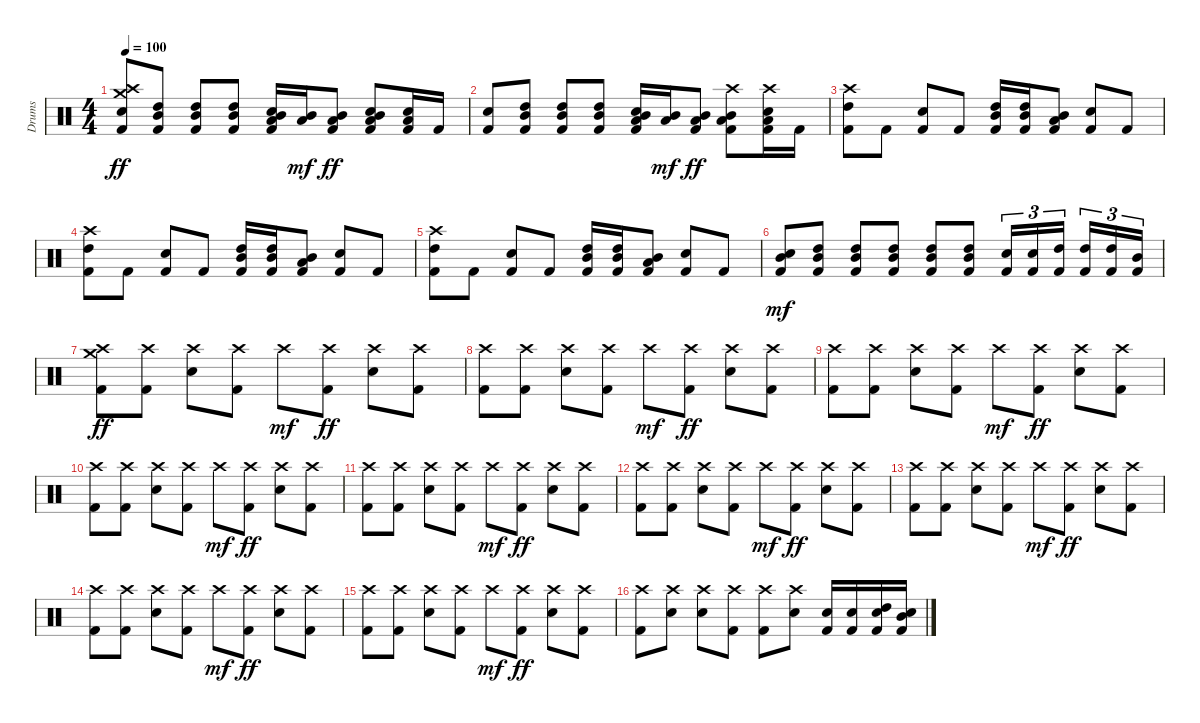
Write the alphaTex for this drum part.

\track ("Drums" "Drums") {instrument percussion}
\staff {score}
\articulation defaults
\ts (4 4)
\tempo 100
\clef neutral
\ks c
("Electric Snare (hit)" "Crash medium (hit)" "Crash high (hit)" "Kick (hit) 2").8{dy ff} ("High Tom (hit)" "Mid Tom (hit)" "Kick (hit) 2").8 ("High Tom (hit)" "Mid Tom (hit)" "Kick (hit) 2").8 ("High Tom (hit)" "Mid Tom (hit)" "Kick (hit) 2").8 ("Mid Tom (hit)" "Low Tom (hit)" "Electric Snare (hit)" "Kick (hit) 2").16 ("Mid Tom (hit)" "Low Tom (hit)").16{dy mf} ("Mid Tom (hit)" "Low Tom (hit)" "Kick (hit) 2").8{dy ff} ("Mid Tom (hit)" "Low Tom (hit)" "Electric Snare (hit)" "Kick (hit) 2").8 ("Low Tom (hit)" "Metronome (bell)" "Kick (hit) 2").16 "Kick (hit) 2".16 |
("Electric Snare (hit)" "Kick (hit) 2").8 ("High Tom (hit)" "Mid Tom (hit)" "Kick (hit) 2").8 ("High Tom (hit)" "Mid Tom (hit)" "Kick (hit) 2").8 ("High Tom (hit)" "Mid Tom (hit)" "Kick (hit) 2").8 ("Mid Tom (hit)" "Low Tom (hit)" "Electric Snare (hit)" "Kick (hit) 2").16 ("Mid Tom (hit)" "Low Tom (hit)").16{dy mf} ("Mid Tom (hit)" "Low Tom (hit)" "Kick (hit) 2").8{dy ff} ("Mid Tom (hit)" "Low Tom (hit)" "Crash high (hit)" "Kick (hit) 2").8 ("Low Tom (hit)" "Metronome (bell)" "Crash high (hit)" "Kick (hit) 2").16 "Kick (hit) 2".16 |
("Crash high (hit)" "High Tom (hit)" "Kick (hit) 2").8 "Kick (hit) 2".8 ("Electric Snare (hit)" "Kick (hit) 2").8 "Kick (hit) 2".8 ("Mid Tom (hit)" "High Tom (hit)" "Kick (hit) 2").16 ("Mid Tom (hit)" "High Tom (hit)" "Kick (hit) 2").16 ("Low Tom (hit)" "Mid Tom (hit)" "Kick (hit) 2").8 ("Electric Snare (hit)" "Kick (hit) 2").8 "Kick (hit) 2".8 |
("Crash high (hit)" "High Tom (hit)" "Kick (hit) 2").8 "Kick (hit) 2".8 ("Electric Snare (hit)" "Kick (hit) 2").8 "Kick (hit) 2".8 ("Mid Tom (hit)" "High Tom (hit)" "Kick (hit) 2").16 ("Mid Tom (hit)" "High Tom (hit)" "Kick (hit) 2").16 ("Low Tom (hit)" "Mid Tom (hit)" "Kick (hit) 2").8 ("Electric Snare (hit)" "Kick (hit) 2").8 "Kick (hit) 2".8 |
("Crash high (hit)" "High Tom (hit)" "Kick (hit) 2").8 "Kick (hit) 2".8 ("Electric Snare (hit)" "Kick (hit) 2").8 "Kick (hit) 2".8 ("Mid Tom (hit)" "High Tom (hit)" "Kick (hit) 2").16 ("Mid Tom (hit)" "High Tom (hit)" "Kick (hit) 2").16 ("Low Tom (hit)" "Mid Tom (hit)" "Kick (hit) 2").8 ("Electric Snare (hit)" "Kick (hit) 2").8 "Kick (hit) 2".8 |
("Electric Snare (hit)" "Mid Tom (hit)" "Kick (hit) 2").8{dy mf} ("High Tom (hit)" "Mid Tom (hit)" "Kick (hit) 2").8 ("High Tom (hit)" "Mid Tom (hit)" "Kick (hit) 2").8 ("High Tom (hit)" "Mid Tom (hit)" "Kick (hit) 2").8 ("High Tom (hit)" "Mid Tom (hit)" "Kick (hit) 2").8 ("High Tom (hit)" "Mid Tom (hit)" "Kick (hit) 2").8 ("Electric Snare (hit)" "Kick (hit) 2").16{tu (3 2)} ("Electric Snare (hit)" "Kick (hit) 2").16{tu (3 2)} ("High Tom (hit)" "Kick (hit) 2").16{tu (3 2)} ("High Tom (hit)" "Kick (hit) 2").16{tu (3 2)} ("High Tom (hit)" "Kick (hit) 2").16{tu (3 2)} ("Mid Tom (hit)" "Kick (hit) 2").16{tu (3 2)} |
("Crash high (hit)" "Crash medium (hit)" "Kick (hit) 2").8{dy ff} ("Crash high (hit)" "Kick (hit) 2").8 ("Crash high (hit)" "Electric Snare (hit)").8 ("Crash high (hit)" "Kick (hit) 2").8 "Crash high (hit)".8{dy mf} ("Crash high (hit)" "Kick (hit) 2").8{dy ff} ("Crash high (hit)" "Electric Snare (hit)").8 ("Crash high (hit)" "Kick (hit) 2").8 |
("Crash high (hit)" "Kick (hit) 2").8 ("Crash high (hit)" "Kick (hit) 2").8 ("Crash high (hit)" "Electric Snare (hit)").8 ("Crash high (hit)" "Kick (hit) 2").8 "Crash high (hit)".8{dy mf} ("Crash high (hit)" "Kick (hit) 2").8{dy ff} ("Crash high (hit)" "Electric Snare (hit)").8 ("Crash high (hit)" "Kick (hit) 2").8 |
("Crash high (hit)" "Kick (hit) 2").8 ("Crash high (hit)" "Kick (hit) 2").8 ("Crash high (hit)" "Electric Snare (hit)").8 ("Crash high (hit)" "Kick (hit) 2").8 "Crash high (hit)".8{dy mf} ("Crash high (hit)" "Kick (hit) 2").8{dy ff} ("Crash high (hit)" "Electric Snare (hit)").8 ("Crash high (hit)" "Kick (hit) 2").8 |
("Crash high (hit)" "Kick (hit) 2").8 ("Crash high (hit)" "Kick (hit) 2").8 ("Crash high (hit)" "Electric Snare (hit)").8 ("Crash high (hit)" "Kick (hit) 2").8 "Crash high (hit)".8{dy mf} ("Crash high (hit)" "Kick (hit) 2").8{dy ff} ("Crash high (hit)" "Electric Snare (hit)").8 ("Crash high (hit)" "Kick (hit) 2").8 |
("Crash high (hit)" "Kick (hit) 2").8 ("Crash high (hit)" "Kick (hit) 2").8 ("Crash high (hit)" "Electric Snare (hit)").8 ("Crash high (hit)" "Kick (hit) 2").8 "Crash high (hit)".8{dy mf} ("Crash high (hit)" "Kick (hit) 2").8{dy ff} ("Crash high (hit)" "Electric Snare (hit)").8 ("Crash high (hit)" "Kick (hit) 2").8 |
("Crash high (hit)" "Kick (hit) 2").8 ("Crash high (hit)" "Kick (hit) 2").8 ("Crash high (hit)" "Electric Snare (hit)").8 ("Crash high (hit)" "Kick (hit) 2").8 "Crash high (hit)".8{dy mf} ("Crash high (hit)" "Kick (hit) 2").8{dy ff} ("Crash high (hit)" "Electric Snare (hit)").8 ("Crash high (hit)" "Kick (hit) 2").8 |
("Crash high (hit)" "Kick (hit) 2").8 ("Crash high (hit)" "Kick (hit) 2").8 ("Crash high (hit)" "Electric Snare (hit)").8 ("Crash high (hit)" "Kick (hit) 2").8 "Crash high (hit)".8{dy mf} ("Crash high (hit)" "Kick (hit) 2").8{dy ff} ("Crash high (hit)" "Electric Snare (hit)").8 ("Crash high (hit)" "Kick (hit) 2").8 |
("Crash high (hit)" "Kick (hit) 2").8 ("Crash high (hit)" "Kick (hit) 2").8 ("Crash high (hit)" "Electric Snare (hit)").8 ("Crash high (hit)" "Kick (hit) 2").8 "Crash high (hit)".8{dy mf} ("Crash high (hit)" "Kick (hit) 2").8{dy ff} ("Crash high (hit)" "Electric Snare (hit)").8 ("Crash high (hit)" "Kick (hit) 2").8 |
("Crash high (hit)" "Kick (hit) 2").8 ("Crash high (hit)" "Kick (hit) 2").8 ("Crash high (hit)" "Electric Snare (hit)").8 ("Crash high (hit)" "Kick (hit) 2").8 "Crash high (hit)".8{dy mf} ("Crash high (hit)" "Kick (hit) 2").8{dy ff} ("Crash high (hit)" "Electric Snare (hit)").8 ("Crash high (hit)" "Kick (hit) 2").8 |
("Crash high (hit)" "Kick (hit) 2").8 ("Crash high (hit)" "Electric Snare (hit)").8 ("Crash high (hit)" "Electric Snare (hit)").8 ("Crash high (hit)" "Kick (hit) 2").8 ("Crash high (hit)" "Kick (hit) 2").8 ("Crash high (hit)" "Electric Snare (hit)").8 ("Electric Snare (hit)" "Kick (hit) 2").16 ("Electric Snare (hit)" "Kick (hit) 2").16 ("High Tom (hit)" "Electric Snare (hit)" "Kick (hit) 2").16 ("Mid Tom (hit)" "Electric Snare (hit)" "Kick (hit) 2").16
